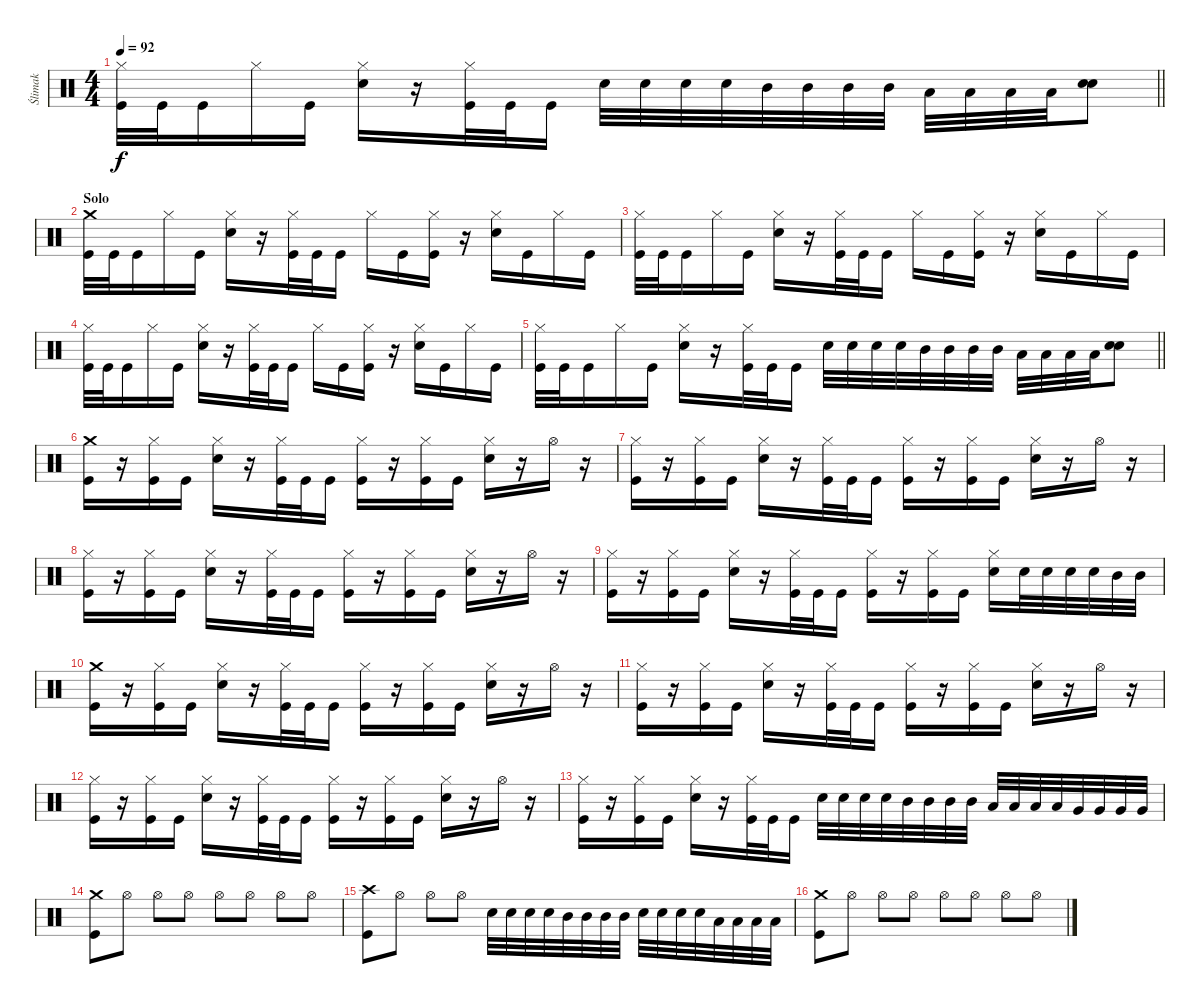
\track ("Ślimak" "Ślimak") {instrument percussion}
\staff {score}
\articulation defaults
\ts (4 4)
\tempo 92
\clef neutral
\barLineRight lightlight
\ks c
("Hi-Hat (closed)" "Kick (hit)").32{dy f} "Kick (hit)".32 "Kick (hit)".16 "Hi-Hat (closed)".16 "Kick (hit)".16 ("Hi-Hat (closed)" "Snare (hit) 2").16 r.16 ("Hi-Hat (closed)" "Kick (hit)").32 "Kick (hit)".32 "Kick (hit)".16 "Snare (hit) 2".32 "Snare (hit) 2".32 "Snare (hit) 2".32 "Snare (hit) 2".32 "Mid Tom (hit)".32 "Mid Tom (hit)".32 "Mid Tom (hit)".32 "Mid Tom (hit)".32 "Low Tom (hit)".32 "Low Tom (hit)".32 "Low Tom (hit)".32 "Low Tom (hit)".32 ("Snare (hit) 2" "Snare (hit) 2").8{bu 120} |
\section ("" "Solo")
("Crash medium (hit)" "Kick (hit)").32 "Kick (hit)".32 "Kick (hit)".16 "Hi-Hat (closed)".16 "Kick (hit)".16 ("Hi-Hat (closed)" "Snare (hit) 2").16 r.16 ("Hi-Hat (closed)" "Kick (hit)").32 "Kick (hit)".32 "Kick (hit)".16 "Hi-Hat (closed)".16 "Kick (hit)".16 ("Hi-Hat (closed)" "Kick (hit)").16 r.16 ("Hi-Hat (closed)" "Snare (hit) 2").16 "Kick (hit)".16 "Hi-Hat (closed)".16 "Kick (hit)".16 |
("Hi-Hat (closed)" "Kick (hit)").32 "Kick (hit)".32 "Kick (hit)".16 "Hi-Hat (closed)".16 "Kick (hit)".16 ("Hi-Hat (closed)" "Snare (hit) 2").16 r.16 ("Hi-Hat (closed)" "Kick (hit)").32 "Kick (hit)".32 "Kick (hit)".16 "Hi-Hat (closed)".16 "Kick (hit)".16 ("Hi-Hat (closed)" "Kick (hit)").16 r.16 ("Hi-Hat (closed)" "Snare (hit) 2").16 "Kick (hit)".16 "Hi-Hat (closed)".16 "Kick (hit)".16 |
("Hi-Hat (closed)" "Kick (hit)").32 "Kick (hit)".32 "Kick (hit)".16 "Hi-Hat (closed)".16 "Kick (hit)".16 ("Hi-Hat (closed)" "Snare (hit) 2").16 r.16 ("Hi-Hat (closed)" "Kick (hit)").32 "Kick (hit)".32 "Kick (hit)".16 "Hi-Hat (closed)".16 "Kick (hit)".16 ("Hi-Hat (closed)" "Kick (hit)").16 r.16 ("Hi-Hat (closed)" "Snare (hit) 2").16 "Kick (hit)".16 "Hi-Hat (closed)".16 "Kick (hit)".16 |
\barLineRight lightlight
("Hi-Hat (closed)" "Kick (hit)").32 "Kick (hit)".32 "Kick (hit)".16 "Hi-Hat (closed)".16 "Kick (hit)".16 ("Hi-Hat (closed)" "Snare (hit) 2").16 r.16 ("Hi-Hat (closed)" "Kick (hit)").32 "Kick (hit)".32 "Kick (hit)".16 "Snare (hit) 2".32 "Snare (hit) 2".32 "Snare (hit) 2".32 "Snare (hit) 2".32 "Mid Tom (hit)".32 "Mid Tom (hit)".32 "Mid Tom (hit)".32 "Mid Tom (hit)".32 "Low Tom (hit)".32 "Low Tom (hit)".32 "Low Tom (hit)".32 "Low Tom (hit)".32 ("Snare (hit) 2" "Snare (hit) 2").8{bu 120} |
("Crash medium (hit)" "Kick (hit)").16 r.16 ("Hi-Hat (closed)" "Kick (hit)").16 "Kick (hit)".16 ("Hi-Hat (closed)" "Snare (hit) 2").16 r.16 ("Hi-Hat (closed)" "Kick (hit)").32 "Kick (hit)".32 "Kick (hit)".16 ("Hi-Hat (closed)" "Kick (hit)").16 r.16 ("Hi-Hat (closed)" "Kick (hit)").16 "Kick (hit)".16 ("Hi-Hat (closed)" "Snare (hit) 2").16 r.16 "Hi-Hat (open)".16 r.16 |
("Hi-Hat (closed)" "Kick (hit)").16 r.16 ("Hi-Hat (closed)" "Kick (hit)").16 "Kick (hit)".16 ("Hi-Hat (closed)" "Snare (hit) 2").16 r.16 ("Hi-Hat (closed)" "Kick (hit)").32 "Kick (hit)".32 "Kick (hit)".16 ("Hi-Hat (closed)" "Kick (hit)").16 r.16 ("Hi-Hat (closed)" "Kick (hit)").16 "Kick (hit)".16 ("Hi-Hat (closed)" "Snare (hit) 2").16 r.16 "Hi-Hat (open)".16 r.16 |
("Hi-Hat (closed)" "Kick (hit)").16 r.16 ("Hi-Hat (closed)" "Kick (hit)").16 "Kick (hit)".16 ("Hi-Hat (closed)" "Snare (hit) 2").16 r.16 ("Hi-Hat (closed)" "Kick (hit)").32 "Kick (hit)".32 "Kick (hit)".16 ("Hi-Hat (closed)" "Kick (hit)").16 r.16 ("Hi-Hat (closed)" "Kick (hit)").16 "Kick (hit)".16 ("Hi-Hat (closed)" "Snare (hit) 2").16 r.16 "Hi-Hat (open)".16 r.16 |
("Hi-Hat (closed)" "Kick (hit)").16 r.16 ("Hi-Hat (closed)" "Kick (hit)").16 "Kick (hit)".16 ("Hi-Hat (closed)" "Snare (hit) 2").16 r.16 ("Hi-Hat (closed)" "Kick (hit)").32 "Kick (hit)".32 "Kick (hit)".16 ("Hi-Hat (closed)" "Kick (hit)").16 r.16 ("Hi-Hat (closed)" "Kick (hit)").16 "Kick (hit)".16 ("Hi-Hat (closed)" "Snare (hit) 2").16 "Snare (hit) 2".32 "Snare (hit) 2".32 "Snare (hit) 2".32 "Snare (hit) 2".32 "Mid Tom (hit)".32 "Mid Tom (hit)".32 |
("Crash medium (hit)" "Kick (hit)").16 r.16 ("Hi-Hat (closed)" "Kick (hit)").16 "Kick (hit)".16 ("Hi-Hat (closed)" "Snare (hit) 2").16 r.16 ("Hi-Hat (closed)" "Kick (hit)").32 "Kick (hit)".32 "Kick (hit)".16 ("Hi-Hat (closed)" "Kick (hit)").16 r.16 ("Hi-Hat (closed)" "Kick (hit)").16 "Kick (hit)".16 ("Hi-Hat (closed)" "Snare (hit) 2").16 r.16 "Hi-Hat (open)".16 r.16 |
("Hi-Hat (closed)" "Kick (hit)").16 r.16 ("Hi-Hat (closed)" "Kick (hit)").16 "Kick (hit)".16 ("Hi-Hat (closed)" "Snare (hit) 2").16 r.16 ("Hi-Hat (closed)" "Kick (hit)").32 "Kick (hit)".32 "Kick (hit)".16 ("Hi-Hat (closed)" "Kick (hit)").16 r.16 ("Hi-Hat (closed)" "Kick (hit)").16 "Kick (hit)".16 ("Hi-Hat (closed)" "Snare (hit) 2").16 r.16 "Hi-Hat (open)".16 r.16 |
("Hi-Hat (closed)" "Kick (hit)").16 r.16 ("Hi-Hat (closed)" "Kick (hit)").16 "Kick (hit)".16 ("Hi-Hat (closed)" "Snare (hit) 2").16 r.16 ("Hi-Hat (closed)" "Kick (hit)").32 "Kick (hit)".32 "Kick (hit)".16 ("Hi-Hat (closed)" "Kick (hit)").16 r.16 ("Hi-Hat (closed)" "Kick (hit)").16 "Kick (hit)".16 ("Hi-Hat (closed)" "Snare (hit) 2").16 r.16 "Hi-Hat (open)".16 r.16 |
("Hi-Hat (closed)" "Kick (hit)").16 r.16 ("Hi-Hat (closed)" "Kick (hit)").16 "Kick (hit)".16 ("Hi-Hat (closed)" "Snare (hit) 2").16 r.16 ("Hi-Hat (closed)" "Kick (hit)").32 "Kick (hit)".32 "Kick (hit)".16 "Snare (hit) 2".32 "Snare (hit) 2".32 "Snare (hit) 2".32 "Snare (hit) 2".32 "Mid Tom (hit)".32 "Mid Tom (hit)".32 "Mid Tom (hit)".32 "Mid Tom (hit)".32 "Low Tom (hit)".32 "Low Tom (hit)".32 "Low Tom (hit)".32 "Low Tom (hit)".32 "Very Low Tom (hit)".32 "Very Low Tom (hit)".32 "Very Low Tom (hit)".32 "Very Low Tom (hit)".32 |
("Crash medium (hit)" "Kick (hit)").8 "Hi-Hat (open)".8 "Hi-Hat (open)".8 "Hi-Hat (open)".8 "Hi-Hat (open)".8 "Hi-Hat (open)".8 "Hi-Hat (open)".8 "Hi-Hat (open)".8 |
("Crash high (hit)" "Kick (hit)").8 "Hi-Hat (open)".8 "Hi-Hat (open)".8 "Hi-Hat (open)".8 "Snare (hit) 2".32 "Snare (hit) 2".32 "Snare (hit) 2".32 "Snare (hit) 2".32 "Mid Tom (hit)".32 "Mid Tom (hit)".32 "Mid Tom (hit)".32 "Mid Tom (hit)".32 "Snare (hit) 2".32 "Snare (hit) 2".32 "Snare (hit) 2".32 "Snare (hit) 2".32 "Low Tom (hit)".32 "Low Tom (hit)".32 "Low Tom (hit)".32 "Low Tom (hit)".32 |
("Crash medium (hit)" "Kick (hit)").8 "Hi-Hat (open)".8 "Hi-Hat (open)".8 "Hi-Hat (open)".8 "Hi-Hat (open)".8 "Hi-Hat (open)".8 "Hi-Hat (open)".8 "Hi-Hat (open)".8
